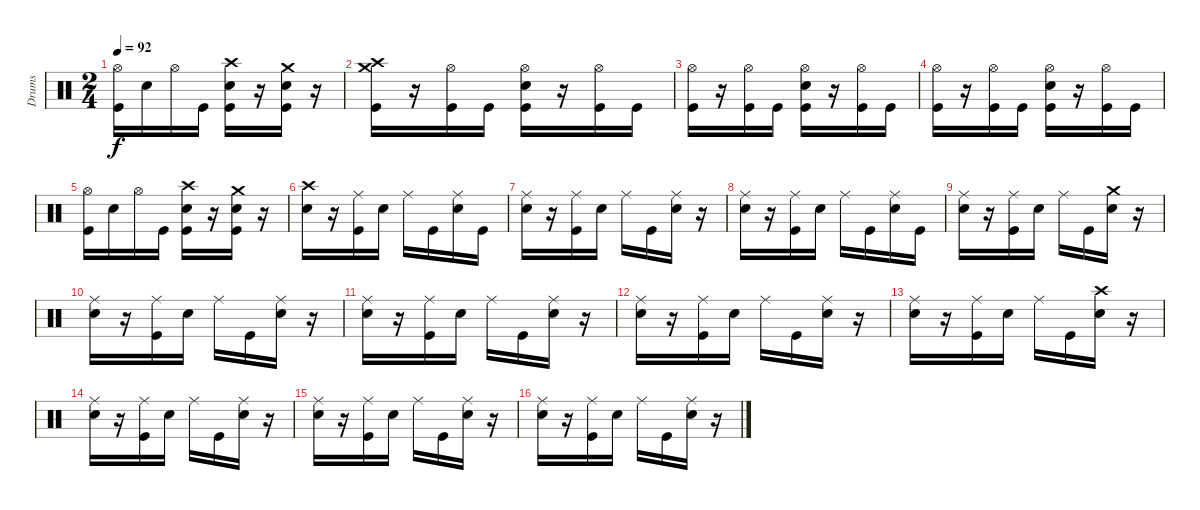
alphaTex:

\track ("Drums" "Drums") {instrument percussion}
\staff {score}
\articulation defaults
\ts (2 4)
\tempo 92
\clef neutral
\ks c
("Hi-Hat (open)" "Kick (hit)").16{dy f} "Electric Snare (hit)".16 "Hi-Hat (open)".16 "Kick (hit)".16 ("Crash high (hit)" "Kick (hit)" "Electric Snare (hit)").16 r.16 ("Crash medium (hit)" "Electric Snare (hit)" "Kick (hit)").16 r.16 |
("Crash high (hit)" "Crash medium (hit)" "Kick (hit)").16 r.16 ("Hi-Hat (open)" "Kick (hit)").16 "Kick (hit)".16 ("Electric Snare (hit)" "Hi-Hat (open)" "Kick (hit)").16 r.16 ("Kick (hit)" "Hi-Hat (open)").16 "Kick (hit)".16 |
("Hi-Hat (open)" "Kick (hit)").16 r.16 ("Hi-Hat (open)" "Kick (hit)").16 "Kick (hit)".16 ("Hi-Hat (open)" "Kick (hit)" "Electric Snare (hit)").16 r.16 ("Hi-Hat (open)" "Kick (hit)").16 "Kick (hit)".16 |
("Hi-Hat (open)" "Kick (hit)").16 r.16 ("Hi-Hat (open)" "Kick (hit)").16 "Kick (hit)".16 ("Hi-Hat (open)" "Kick (hit)" "Electric Snare (hit)").16 r.16 ("Hi-Hat (open)" "Kick (hit)").16 "Kick (hit)".16 |
("Hi-Hat (open)" "Kick (hit)").16 "Electric Snare (hit)".16 "Hi-Hat (open)".16 "Kick (hit)".16 ("Crash high (hit)" "Kick (hit)" "Electric Snare (hit)").16 r.16 ("Crash medium (hit)" "Electric Snare (hit)" "Kick (hit)").16 r.16 |
("Crash high (hit)" "Electric Snare (hit)").16 r.16 ("Ride (middle)" "Kick (hit)").16 "Electric Snare (hit)".16 "Ride (middle)".16 "Kick (hit)".16 ("Ride (middle)" "Electric Snare (hit)").16 "Kick (hit)".16 |
("Ride (middle)" "Electric Snare (hit)").16 r.16 ("Ride (middle)" "Kick (hit)").16 "Electric Snare (hit)".16 "Ride (middle)".16 "Kick (hit)".16 ("Ride (middle)" "Electric Snare (hit)").16 r.16 |
("Ride (middle)" "Electric Snare (hit)").16 r.16 ("Ride (middle)" "Kick (hit)").16 "Electric Snare (hit)".16 "Ride (middle)".16 "Kick (hit)".16 ("Ride (middle)" "Electric Snare (hit)").16 "Kick (hit)".16 |
("Ride (middle)" "Electric Snare (hit)").16 r.16 ("Ride (middle)" "Kick (hit)").16 "Electric Snare (hit)".16 "Ride (middle)".16 "Kick (hit)".16 ("Crash medium (hit)" "Electric Snare (hit)").16 r.16 |
("Ride (middle)" "Electric Snare (hit)").16 r.16 ("Ride (middle)" "Kick (hit)").16 "Electric Snare (hit)".16 "Ride (middle)".16 "Kick (hit)".16 ("Ride (middle)" "Electric Snare (hit)").16 r.16 |
("Ride (middle)" "Electric Snare (hit)").16 r.16 ("Ride (middle)" "Kick (hit)").16 "Electric Snare (hit)".16 "Ride (middle)".16 "Kick (hit)".16 ("Ride (middle)" "Electric Snare (hit)").16 r.16 |
("Ride (middle)" "Electric Snare (hit)").16 r.16 ("Ride (middle)" "Kick (hit)").16 "Electric Snare (hit)".16 "Ride (middle)".16 "Kick (hit)".16 ("Ride (middle)" "Electric Snare (hit)").16 r.16 |
("Ride (middle)" "Electric Snare (hit)").16 r.16 ("Ride (middle)" "Kick (hit)").16 "Electric Snare (hit)".16 "Ride (middle)".16 "Kick (hit)".16 ("Crash high (hit)" "Electric Snare (hit)").16 r.16 |
("Ride (middle)" "Electric Snare (hit)").16 r.16 ("Ride (middle)" "Kick (hit)").16 "Electric Snare (hit)".16 "Ride (middle)".16 "Kick (hit)".16 ("Ride (middle)" "Electric Snare (hit)").16 r.16 |
("Ride (middle)" "Electric Snare (hit)").16 r.16 ("Ride (middle)" "Kick (hit)").16 "Electric Snare (hit)".16 "Ride (middle)".16 "Kick (hit)".16 ("Ride (middle)" "Electric Snare (hit)").16 r.16 |
("Ride (middle)" "Electric Snare (hit)").16 r.16 ("Ride (middle)" "Kick (hit)").16 "Electric Snare (hit)".16 "Ride (middle)".16 "Kick (hit)".16 ("Ride (middle)" "Electric Snare (hit)").16 r.16
